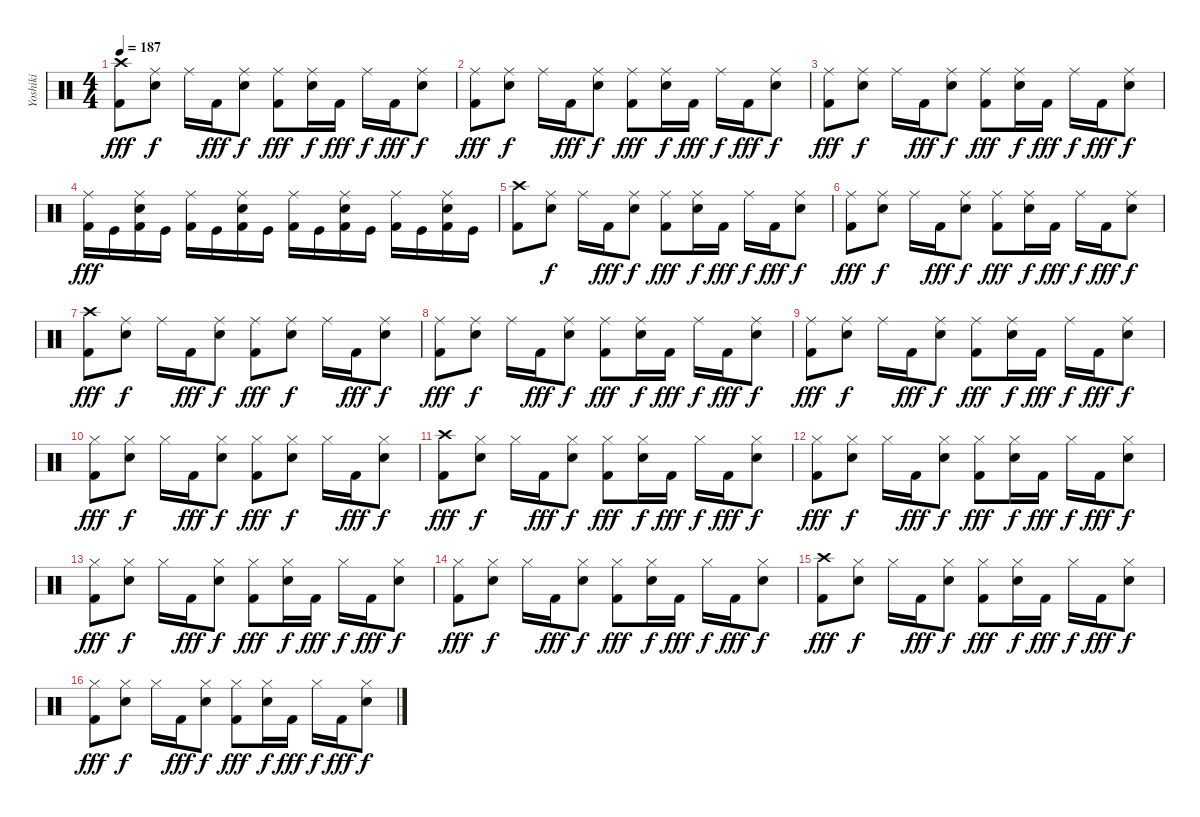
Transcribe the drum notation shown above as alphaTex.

\track ("Yoshiki" "Yoshiki") {instrument percussion}
\staff {score}
\articulation defaults
\ts (4 4)
\tempo 187
\clef neutral
\ks c
("Crash high (hit)" "Kick (hit) 2").8{dy fff} ("Ride (middle)" "Electric Snare (hit)").8{dy f} "Ride (middle)".16 "Kick (hit) 2".16{dy fff} ("Ride (middle)" "Electric Snare (hit)").8{dy f} ("Ride (middle)" "Kick (hit) 2").8{dy fff} ("Ride (middle)" "Electric Snare (hit)").16{dy f} "Kick (hit) 2".16{dy fff} "Ride (middle)".16{dy f} "Kick (hit) 2".16{dy fff} ("Ride (middle)" "Electric Snare (hit)").8{dy f} |
("Ride (middle)" "Kick (hit) 2").8{dy fff} ("Ride (middle)" "Electric Snare (hit)").8{dy f} "Ride (middle)".16 "Kick (hit) 2".16{dy fff} ("Ride (middle)" "Electric Snare (hit)").8{dy f} ("Ride (middle)" "Kick (hit) 2").8{dy fff} ("Ride (middle)" "Electric Snare (hit)").16{dy f} "Kick (hit) 2".16{dy fff} "Ride (middle)".16{dy f} "Kick (hit) 2".16{dy fff} ("Ride (middle)" "Electric Snare (hit)").8{dy f} |
("Ride (middle)" "Kick (hit) 2").8{dy fff} ("Ride (middle)" "Electric Snare (hit)").8{dy f} "Ride (middle)".16 "Kick (hit) 2".16{dy fff} ("Ride (middle)" "Electric Snare (hit)").8{dy f} ("Ride (middle)" "Kick (hit) 2").8{dy fff} ("Ride (middle)" "Electric Snare (hit)").16{dy f} "Kick (hit) 2".16{dy fff} "Ride (middle)".16{dy f} "Kick (hit) 2".16{dy fff} ("Ride (middle)" "Electric Snare (hit)").8{dy f} |
("Ride (middle)" "Kick (hit) 2").16{dy fff} "Kick (hit)".16 ("Ride (middle)" "Electric Snare (hit)" "Kick (hit) 2").16 "Kick (hit)".16 ("Ride (middle)" "Kick (hit) 2").16 "Kick (hit)".16 ("Ride (middle)" "Electric Snare (hit)" "Kick (hit) 2").16 "Kick (hit)".16 ("Ride (middle)" "Kick (hit) 2").16 "Kick (hit)".16 ("Ride (middle)" "Electric Snare (hit)" "Kick (hit) 2").16 "Kick (hit)".16 ("Ride (middle)" "Kick (hit) 2").16 "Kick (hit)".16 ("Ride (middle)" "Electric Snare (hit)" "Kick (hit) 2").16 "Kick (hit)".16 |
("Crash high (hit)" "Kick (hit) 2").8 ("Ride (middle)" "Electric Snare (hit)").8{dy f} "Ride (middle)".16 "Kick (hit) 2".16{dy fff} ("Ride (middle)" "Electric Snare (hit)").8{dy f} ("Ride (middle)" "Kick (hit) 2").8{dy fff} ("Ride (middle)" "Electric Snare (hit)").16{dy f} "Kick (hit) 2".16{dy fff} "Ride (middle)".16{dy f} "Kick (hit) 2".16{dy fff} ("Ride (middle)" "Electric Snare (hit)").8{dy f} |
("Ride (middle)" "Kick (hit) 2").8{dy fff} ("Ride (middle)" "Electric Snare (hit)").8{dy f} "Ride (middle)".16 "Kick (hit) 2".16{dy fff} ("Ride (middle)" "Electric Snare (hit)").8{dy f} ("Ride (middle)" "Kick (hit) 2").8{dy fff} ("Ride (middle)" "Electric Snare (hit)").16{dy f} "Kick (hit) 2".16{dy fff} "Ride (middle)".16{dy f} "Kick (hit) 2".16{dy fff} ("Ride (middle)" "Electric Snare (hit)").8{dy f} |
("Crash high (hit)" "Kick (hit) 2").8{dy fff} ("Ride (middle)" "Electric Snare (hit)").8{dy f} "Ride (middle)".16 "Kick (hit) 2".16{dy fff} ("Ride (middle)" "Electric Snare (hit)").8{dy f} ("Ride (middle)" "Kick (hit) 2").8{dy fff} ("Ride (middle)" "Electric Snare (hit)").8{dy f} "Ride (middle)".16 "Kick (hit) 2".16{dy fff} ("Ride (middle)" "Electric Snare (hit)").8{dy f} |
("Ride (middle)" "Kick (hit) 2").8{dy fff} ("Ride (middle)" "Electric Snare (hit)").8{dy f} "Ride (middle)".16 "Kick (hit) 2".16{dy fff} ("Ride (middle)" "Electric Snare (hit)").8{dy f} ("Ride (middle)" "Kick (hit) 2").8{dy fff} ("Ride (middle)" "Electric Snare (hit)").16{dy f} "Kick (hit) 2".16{dy fff} "Ride (middle)".16{dy f} "Kick (hit) 2".16{dy fff} ("Ride (middle)" "Electric Snare (hit)").8{dy f} |
("Ride (middle)" "Kick (hit) 2").8{dy fff} ("Ride (middle)" "Electric Snare (hit)").8{dy f} "Ride (middle)".16 "Kick (hit) 2".16{dy fff} ("Ride (middle)" "Electric Snare (hit)").8{dy f} ("Ride (middle)" "Kick (hit) 2").8{dy fff} ("Ride (middle)" "Electric Snare (hit)").16{dy f} "Kick (hit) 2".16{dy fff} "Ride (middle)".16{dy f} "Kick (hit) 2".16{dy fff} ("Ride (middle)" "Electric Snare (hit)").8{dy f} |
("Hi-Hat (closed)" "Kick (hit) 2").8{dy fff} ("Hi-Hat (closed)" "Electric Snare (hit)").8{dy f} "Hi-Hat (closed)".16 "Kick (hit) 2".16{dy fff} ("Hi-Hat (closed)" "Electric Snare (hit)").8{dy f} ("Hi-Hat (closed)" "Kick (hit) 2").8{dy fff} ("Hi-Hat (closed)" "Electric Snare (hit)").8{dy f} "Hi-Hat (closed)".16 "Kick (hit) 2".16{dy fff} ("Hi-Hat (closed)" "Electric Snare (hit)").8{dy f} |
("Crash high (hit)" "Kick (hit) 2").8{dy fff} ("Hi-Hat (closed)" "Electric Snare (hit)").8{dy f} "Hi-Hat (closed)".16 "Kick (hit) 2".16{dy fff} ("Hi-Hat (closed)" "Electric Snare (hit)").8{dy f} ("Hi-Hat (closed)" "Kick (hit) 2").8{dy fff} ("Hi-Hat (closed)" "Electric Snare (hit)").16{dy f} "Kick (hit) 2".16{dy fff} "Hi-Hat (closed)".16{dy f} "Kick (hit) 2".16{dy fff} ("Hi-Hat (closed)" "Electric Snare (hit)").8{dy f} |
("Hi-Hat (closed)" "Kick (hit) 2").8{dy fff} ("Hi-Hat (closed)" "Electric Snare (hit)").8{dy f} "Hi-Hat (closed)".16 "Kick (hit) 2".16{dy fff} ("Hi-Hat (closed)" "Electric Snare (hit)").8{dy f} ("Hi-Hat (closed)" "Kick (hit) 2").8{dy fff} ("Hi-Hat (closed)" "Electric Snare (hit)").16{dy f} "Kick (hit) 2".16{dy fff} "Hi-Hat (closed)".16{dy f} "Kick (hit) 2".16{dy fff} ("Hi-Hat (closed)" "Electric Snare (hit)").8{dy f} |
("Hi-Hat (closed)" "Kick (hit) 2").8{dy fff} ("Hi-Hat (closed)" "Electric Snare (hit)").8{dy f} "Hi-Hat (closed)".16 "Kick (hit) 2".16{dy fff} ("Hi-Hat (closed)" "Electric Snare (hit)").8{dy f} ("Hi-Hat (closed)" "Kick (hit) 2").8{dy fff} ("Hi-Hat (closed)" "Electric Snare (hit)").16{dy f} "Kick (hit) 2".16{dy fff} "Hi-Hat (closed)".16{dy f} "Kick (hit) 2".16{dy fff} ("Hi-Hat (closed)" "Electric Snare (hit)").8{dy f} |
("Hi-Hat (closed)" "Kick (hit) 2").8{dy fff} ("Hi-Hat (closed)" "Electric Snare (hit)").8{dy f} "Hi-Hat (closed)".16 "Kick (hit) 2".16{dy fff} ("Hi-Hat (closed)" "Electric Snare (hit)").8{dy f} ("Hi-Hat (closed)" "Kick (hit) 2").8{dy fff} ("Hi-Hat (closed)" "Electric Snare (hit)").16{dy f} "Kick (hit) 2".16{dy fff} "Hi-Hat (closed)".16{dy f} "Kick (hit) 2".16{dy fff} ("Hi-Hat (closed)" "Electric Snare (hit)").8{dy f} |
("Crash high (hit)" "Kick (hit) 2").8{dy fff} ("Hi-Hat (closed)" "Electric Snare (hit)").8{dy f} "Hi-Hat (closed)".16 "Kick (hit) 2".16{dy fff} ("Hi-Hat (closed)" "Electric Snare (hit)").8{dy f} ("Hi-Hat (closed)" "Kick (hit) 2").8{dy fff} ("Hi-Hat (closed)" "Electric Snare (hit)").16{dy f} "Kick (hit) 2".16{dy fff} "Hi-Hat (closed)".16{dy f} "Kick (hit) 2".16{dy fff} ("Hi-Hat (closed)" "Electric Snare (hit)").8{dy f} |
("Hi-Hat (closed)" "Kick (hit) 2").8{dy fff} ("Hi-Hat (closed)" "Electric Snare (hit)").8{dy f} "Hi-Hat (closed)".16 "Kick (hit) 2".16{dy fff} ("Hi-Hat (closed)" "Electric Snare (hit)").8{dy f} ("Hi-Hat (closed)" "Kick (hit) 2").8{dy fff} ("Hi-Hat (closed)" "Electric Snare (hit)").16{dy f} "Kick (hit) 2".16{dy fff} "Hi-Hat (closed)".16{dy f} "Kick (hit) 2".16{dy fff} ("Hi-Hat (closed)" "Electric Snare (hit)").8{dy f}
